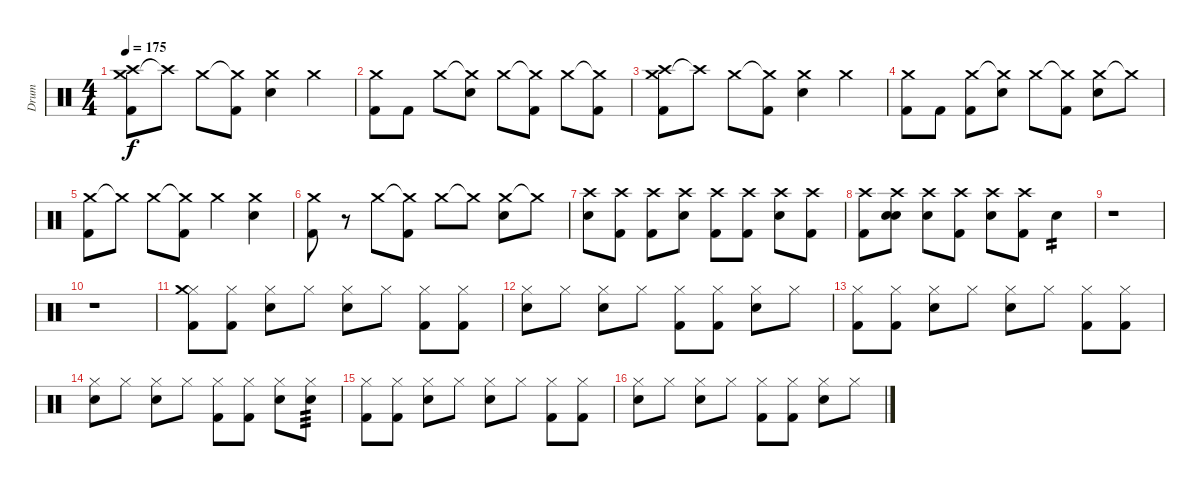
\track ("Drum" "Drum") {instrument percussion}
\staff {score}
\articulation defaults
\ts (4 4)
\tempo 175
\clef neutral
\ks c
("Crash medium (hit)" "Crash high (hit)" "Kick (hit) 2").8{dy f} "Crash high (hit)"{t}.8 "Crash medium (hit)".8 ("Crash medium (hit)"{t} "Kick (hit) 2").8 ("Crash medium (hit)" "Snare (hit) 2").4 "Crash medium (hit)".4 |
("Crash medium (hit)" "Kick (hit) 2").8 "Kick (hit) 2".8 "Crash medium (hit)".8 ("Crash medium (hit)"{t} "Snare (hit) 2").8 "Crash medium (hit)".8 ("Crash medium (hit)"{t} "Kick (hit) 2").8 "Crash medium (hit)".8 ("Crash medium (hit)"{t} "Kick (hit) 2").8 |
("Crash medium (hit)" "Crash high (hit)" "Kick (hit) 2").8 "Crash high (hit)"{t}.8 "Crash medium (hit)".8 ("Crash medium (hit)"{t} "Kick (hit) 2").8 ("Crash medium (hit)" "Snare (hit) 2").4 "Crash medium (hit)".4 |
("Crash medium (hit)" "Kick (hit) 2").8 "Kick (hit) 2".8 ("Crash medium (hit)" "Kick (hit) 2").8 ("Crash medium (hit)"{t} "Snare (hit) 2").8 "Crash medium (hit)".8 ("Crash medium (hit)"{t} "Kick (hit) 2").8 ("Crash medium (hit)" "Snare (hit) 2").8 "Crash medium (hit)"{t}.8 |
("Crash medium (hit)" "Kick (hit) 2").8 "Crash medium (hit)"{t}.8 "Crash medium (hit)".8 ("Crash medium (hit)"{t} "Kick (hit) 2").8 "Crash medium (hit)".4 ("Crash medium (hit)" "Snare (hit) 2").4 |
("Crash medium (hit)" "Kick (hit) 2").8 r.8 "Crash medium (hit)".8 ("Crash medium (hit)"{t} "Kick (hit) 2").8 "Crash medium (hit)".8 "Crash medium (hit)"{t}.8 ("Crash medium (hit)" "Snare (hit) 2").8 "Crash medium (hit)"{t}.8 |
("Crash high (hit)" "Snare (hit) 2").8 ("Crash high (hit)" "Kick (hit) 2").8 ("Crash high (hit)" "Kick (hit) 2").8 ("Crash high (hit)" "Snare (hit) 2").8 ("Crash high (hit)" "Kick (hit) 2").8 ("Crash high (hit)" "Kick (hit) 2").8 ("Crash high (hit)" "Snare (hit) 2").8 ("Crash high (hit)" "Kick (hit) 2").8 |
("Crash high (hit)" "Kick (hit) 2").8 ("Crash high (hit)" "Snare (hit)" "Snare (hit) 2").8 ("Crash high (hit)" "Snare (hit) 2").8 ("Crash high (hit)" "Kick (hit) 2").8 ("Crash high (hit)" "Snare (hit) 2").8 ("Crash high (hit)" "Kick (hit) 2").8 "Snare (hit) 2".4{tp 2} |
r.1 |
r.1 |
("Hi-Hat (closed)" "Crash medium (hit)" "Kick (hit) 2").8 ("Hi-Hat (closed)" "Kick (hit) 2").8 ("Hi-Hat (closed)" "Snare (hit) 2").8 "Hi-Hat (closed)".8 ("Hi-Hat (closed)" "Snare (hit) 2").8 "Hi-Hat (closed)".8 ("Hi-Hat (closed)" "Kick (hit) 2").8 ("Hi-Hat (closed)" "Kick (hit) 2").8 |
("Hi-Hat (closed)" "Snare (hit) 2").8 "Hi-Hat (closed)".8 ("Hi-Hat (closed)" "Snare (hit) 2").8 "Hi-Hat (closed)".8 ("Hi-Hat (closed)" "Kick (hit) 2").8 ("Hi-Hat (closed)" "Kick (hit) 2").8 ("Hi-Hat (closed)" "Snare (hit) 2").8 "Hi-Hat (closed)".8 |
("Hi-Hat (closed)" "Kick (hit) 2").8 ("Hi-Hat (closed)" "Kick (hit) 2").8 ("Hi-Hat (closed)" "Snare (hit) 2").8 "Hi-Hat (closed)".8 ("Hi-Hat (closed)" "Snare (hit) 2").8 "Hi-Hat (closed)".8 ("Hi-Hat (closed)" "Kick (hit) 2").8 ("Hi-Hat (closed)" "Kick (hit) 2").8 |
("Hi-Hat (closed)" "Snare (hit) 2").8 "Hi-Hat (closed)".8 ("Hi-Hat (closed)" "Snare (hit) 2").8 "Hi-Hat (closed)".8 ("Hi-Hat (closed)" "Kick (hit) 2").8 ("Hi-Hat (closed)" "Kick (hit) 2").8 ("Hi-Hat (closed)" "Snare (hit) 2").8 ("Hi-Hat (closed)" "Snare (hit) 2").8{tp 3} |
("Hi-Hat (closed)" "Kick (hit) 2").8 ("Hi-Hat (closed)" "Kick (hit) 2").8 ("Hi-Hat (closed)" "Snare (hit) 2").8 "Hi-Hat (closed)".8 ("Hi-Hat (closed)" "Snare (hit) 2").8 "Hi-Hat (closed)".8 ("Hi-Hat (closed)" "Kick (hit) 2").8 ("Hi-Hat (closed)" "Kick (hit) 2").8 |
("Hi-Hat (closed)" "Snare (hit) 2").8 "Hi-Hat (closed)".8 ("Hi-Hat (closed)" "Snare (hit) 2").8 "Hi-Hat (closed)".8 ("Hi-Hat (closed)" "Kick (hit) 2").8 ("Hi-Hat (closed)" "Kick (hit) 2").8 ("Hi-Hat (closed)" "Snare (hit) 2").8 "Hi-Hat (closed)".8
